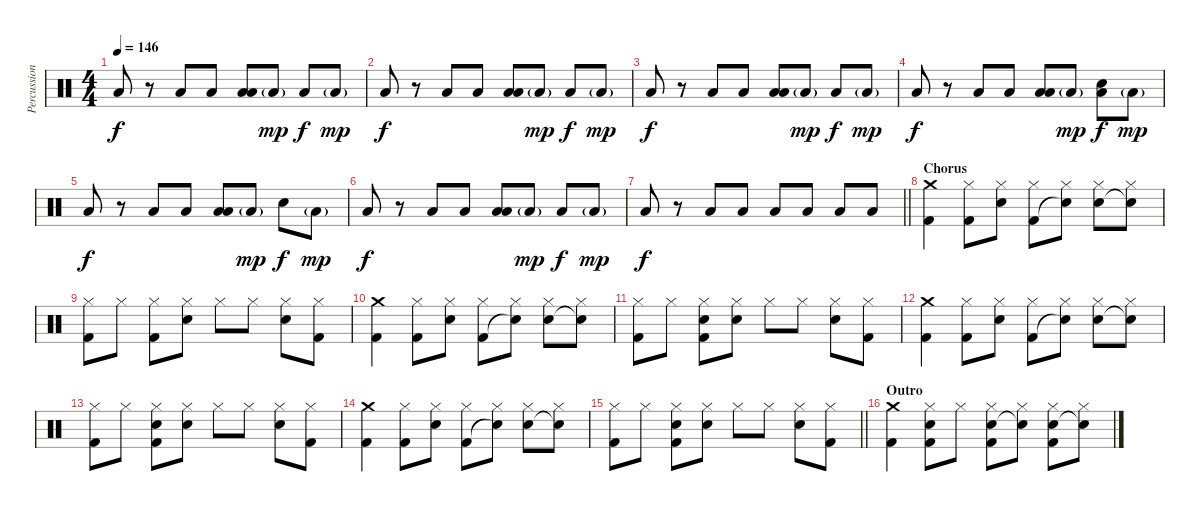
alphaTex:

\track ("Percussion" "Percussion") {instrument percussion}
\staff {score}
\articulation defaults
\ts (4 4)
\tempo 146
\clef neutral
\ks c "Low Tom (hit)".8{dy f}
r.8 "Low Tom (hit)".8 "Low Tom (hit)".8 ("Low Tom (hit)" "Low Floor Tom (hit)").8 "Low Floor Tom (hit)"{g}.8{dy mp} "Low Floor Tom (hit)".8{dy f} "Low Tom (hit)"{g}.8{dy mp} |
"Low Tom (hit)".8{dy f} r.8 "Low Tom (hit)".8 "Low Tom (hit)".8 ("Low Tom (hit)" "Low Floor Tom (hit)").8 "Low Floor Tom (hit)"{g}.8{dy mp} "Low Floor Tom (hit)".8{dy f} "Low Tom (hit)"{g}.8{dy mp} |
"Low Tom (hit)".8{dy f} r.8 "Low Tom (hit)".8 "Low Tom (hit)".8 ("Low Tom (hit)" "Low Floor Tom (hit)").8 "Low Floor Tom (hit)"{g}.8{dy mp} "Low Floor Tom (hit)".8{dy f} "Low Tom (hit)"{g}.8{dy mp} |
"Low Tom (hit)".8{dy f} r.8 "Low Tom (hit)".8 "Low Tom (hit)".8 ("Low Tom (hit)" "Low Floor Tom (hit)").8 "Low Floor Tom (hit)"{g}.8{dy mp} ("Snare (hit) 2" "Low Floor Tom (hit)").8{dy f} "Low Tom (hit)"{g}.8{dy mp} |
"Low Tom (hit)".8{dy f} r.8 "Low Tom (hit)".8 "Low Tom (hit)".8 ("Low Tom (hit)" "Low Floor Tom (hit)").8 "Low Floor Tom (hit)"{g}.8{dy mp} "Snare (hit) 2".8{dy f} "Low Tom (hit)"{g}.8{dy mp} |
"Low Tom (hit)".8{dy f} r.8 "Low Tom (hit)".8 "Low Tom (hit)".8 ("Low Tom (hit)" "Low Floor Tom (hit)").8 "Low Floor Tom (hit)"{g}.8{dy mp} "Low Floor Tom (hit)".8{dy f} "Low Tom (hit)"{g}.8{dy mp} |
\barLineRight lightlight "Low Tom (hit)".8{dy f}
r.8 "Low Tom (hit)".8 "Low Tom (hit)".8 "Low Tom (hit)".8 "Low Tom (hit)".8 "Low Tom (hit)".8 "Low Tom (hit)".8 |
\section ("" "Chorus")
("Crash medium (hit)" "Kick (hit) 2").4 ("Hi-Hat (closed)" "Kick (hit) 2").8 ("Hi-Hat (closed)" "Snare (hit) 2").8 ("Hi-Hat (closed)" "Kick (hit) 2").8 ("Hi-Hat (closed)" "Snare (hit)"{t}).8 ("Hi-Hat (closed)" "Snare (hit) 2").8 ("Hi-Hat (closed)" "Snare (hit)"{t}).8 |
("Hi-Hat (closed)" "Kick (hit) 2").8 "Hi-Hat (closed)".8 ("Hi-Hat (closed)" "Kick (hit) 2").8 ("Hi-Hat (closed)" "Snare (hit) 2").8 "Hi-Hat (closed)".8 "Hi-Hat (closed)".8 ("Hi-Hat (closed)" "Snare (hit) 2").8 ("Hi-Hat (closed)" "Kick (hit) 2").8 |
("Crash medium (hit)" "Kick (hit) 2").4 ("Hi-Hat (closed)" "Kick (hit) 2").8 ("Hi-Hat (closed)" "Snare (hit) 2").8 ("Hi-Hat (closed)" "Kick (hit) 2").8 ("Hi-Hat (closed)" "Snare (hit)"{t}).8 ("Hi-Hat (closed)" "Snare (hit) 2").8 ("Hi-Hat (closed)" "Snare (hit)"{t}).8 |
("Hi-Hat (closed)" "Kick (hit) 2").8 "Hi-Hat (closed)".8 ("Hi-Hat (closed)" "Snare (hit) 2" "Kick (hit) 2").8 ("Hi-Hat (closed)" "Snare (hit) 2").8 "Hi-Hat (closed)".8 "Hi-Hat (closed)".8 ("Hi-Hat (closed)" "Snare (hit) 2").8 ("Hi-Hat (closed)" "Kick (hit) 2").8 |
("Crash medium (hit)" "Kick (hit) 2").4 ("Hi-Hat (closed)" "Kick (hit) 2").8 ("Hi-Hat (closed)" "Snare (hit) 2").8 ("Hi-Hat (closed)" "Kick (hit) 2").8 ("Hi-Hat (closed)" "Snare (hit)"{t}).8 ("Hi-Hat (closed)" "Snare (hit) 2").8 ("Hi-Hat (closed)" "Snare (hit)"{t}).8 |
("Hi-Hat (closed)" "Kick (hit) 2").8 "Hi-Hat (closed)".8 ("Hi-Hat (closed)" "Snare (hit) 2" "Kick (hit) 2").8 ("Hi-Hat (closed)" "Snare (hit) 2").8 "Hi-Hat (closed)".8 "Hi-Hat (closed)".8 ("Hi-Hat (closed)" "Snare (hit) 2").8 ("Hi-Hat (closed)" "Kick (hit) 2").8 |
("Crash medium (hit)" "Kick (hit) 2").4 ("Hi-Hat (closed)" "Kick (hit) 2").8 ("Hi-Hat (closed)" "Snare (hit) 2").8 ("Hi-Hat (closed)" "Kick (hit) 2").8 ("Hi-Hat (closed)" "Snare (hit)"{t}).8 ("Hi-Hat (closed)" "Snare (hit) 2").8 ("Hi-Hat (closed)" "Snare (hit)"{t}).8 |
\barLineRight lightlight
("Hi-Hat (closed)" "Kick (hit) 2").8 "Hi-Hat (closed)".8 ("Hi-Hat (closed)" "Snare (hit) 2" "Kick (hit) 2").8 ("Hi-Hat (closed)" "Snare (hit) 2").8 "Hi-Hat (closed)".8 "Hi-Hat (closed)".8 ("Hi-Hat (closed)" "Snare (hit) 2").8 ("Hi-Hat (closed)" "Kick (hit) 2").8 |
\section ("" "Outro")
("Crash medium (hit)" "Kick (hit) 2").4 ("Hi-Hat (closed)" "Snare (hit) 2" "Kick (hit) 2").8 "Hi-Hat (closed)".8 ("Hi-Hat (closed)" "Snare (hit) 2" "Kick (hit) 2").8 ("Hi-Hat (closed)" "Snare (hit)"{t}).8 ("Hi-Hat (closed)" "Snare (hit) 2" "Kick (hit) 2").8 ("Hi-Hat (closed)" "Snare (hit)"{t}).8
